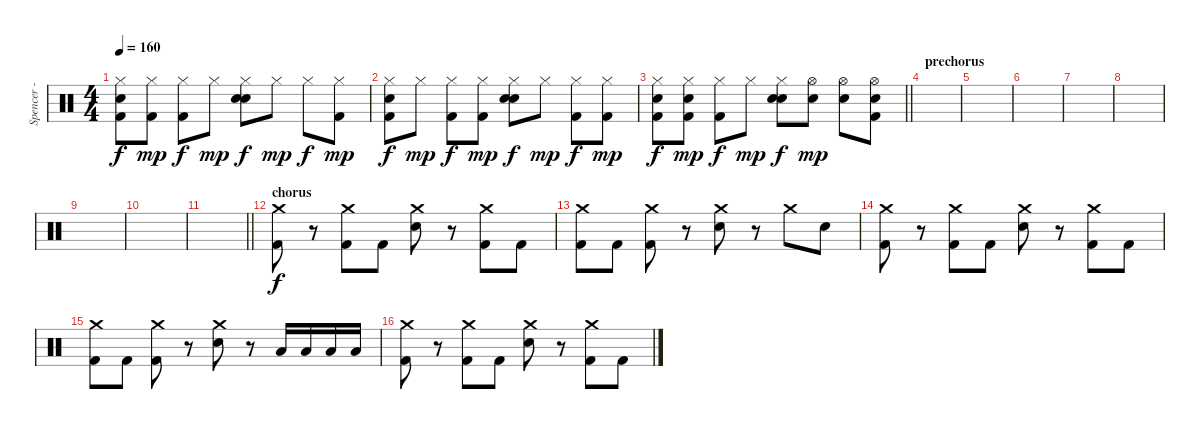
\track ("Spencer - Drums" "Spencer - ") {instrument percussion}
\staff {score}
\articulation defaults
\ts (4 4)
\tempo 160
\clef neutral
\ks c
("Hand Clap (hit)" "Hi-Hat (closed)" "Kick (hit) 2").8{dy f} ("Hi-Hat (closed)" "Kick (hit) 2").8{dy mp} ("Hi-Hat (closed)" "Kick (hit) 2").8{dy f} "Hi-Hat (closed)".8{dy mp} ("Hand Clap (hit)" "Hi-Hat (closed)" "Electric Snare (hit)").8{dy f} "Hi-Hat (closed)".8{dy mp} "Hi-Hat (closed)".8{dy f} ("Hi-Hat (closed)" "Kick (hit) 2").8{dy mp} |
("Hand Clap (hit)" "Hi-Hat (closed)" "Kick (hit) 2").8{dy f} "Hi-Hat (closed)".8{dy mp} ("Hi-Hat (closed)" "Kick (hit) 2").8{dy f} ("Hi-Hat (closed)" "Kick (hit) 2").8{dy mp} ("Hand Clap (hit)" "Hi-Hat (closed)" "Electric Snare (hit)").8{dy f} "Hi-Hat (closed)".8{dy mp} ("Hi-Hat (closed)" "Kick (hit) 2").8{dy f} ("Hi-Hat (closed)" "Kick (hit) 2").8{dy mp} |
\barLineRight lightlight
("Hand Clap (hit)" "Hi-Hat (closed)" "Kick (hit) 2").8{dy f} ("Hi-Hat (closed)" "Electric Snare (hit)" "Kick (hit) 2").8{dy mp} ("Hi-Hat (closed)" "Kick (hit) 2").8{dy f} "Hi-Hat (closed)".8{dy mp} ("Hand Clap (hit)" "Hi-Hat (closed)" "Electric Snare (hit)").8{dy f} ("Hi-Hat (open)" "Electric Snare (hit)").8{dy mp} ("Hi-Hat (open)" "Electric Snare (hit)").8 ("Hi-Hat (open)" "Electric Snare (hit)" "Kick (hit) 2").8 |
\section ("" "prechorus")
|
|
|
|
|
|
|
\barLineRight lightlight
|
\section ("" "chorus")
("Crash medium (hit)" "Kick (hit) 2").8{dy f} r.8 ("Crash medium (hit)" "Kick (hit) 2").8 "Kick (hit) 2".8 ("Crash medium (hit)" "Electric Snare (hit)").8 r.8 ("Crash medium (hit)" "Kick (hit) 2").8 "Kick (hit) 2".8 |
("Crash medium (hit)" "Kick (hit) 2").8 "Kick (hit) 2".8 ("Crash medium (hit)" "Kick (hit) 2").8 r.8 ("Crash medium (hit)" "Electric Snare (hit)").8 r.8 "Crash medium (hit)".8 "Electric Snare (hit)".8 |
("Crash medium (hit)" "Kick (hit) 2").8 r.8 ("Crash medium (hit)" "Kick (hit) 2").8 "Kick (hit) 2".8 ("Crash medium (hit)" "Electric Snare (hit)").8 r.8 ("Crash medium (hit)" "Kick (hit) 2").8 "Kick (hit) 2".8 |
("Crash medium (hit)" "Kick (hit) 2").8 "Kick (hit) 2".8 ("Crash medium (hit)" "Kick (hit) 2").8 r.8 ("Crash medium (hit)" "Electric Snare (hit)").8 r.8 "Low Tom (hit)".16 "Low Tom (hit)".16 "Low Tom (hit)".16 "Low Tom (hit)".16 |
("Crash medium (hit)" "Kick (hit) 2").8 r.8 ("Crash medium (hit)" "Kick (hit) 2").8 "Kick (hit) 2".8 ("Crash medium (hit)" "Electric Snare (hit)").8 r.8 ("Crash medium (hit)" "Kick (hit) 2").8 "Kick (hit) 2".8
